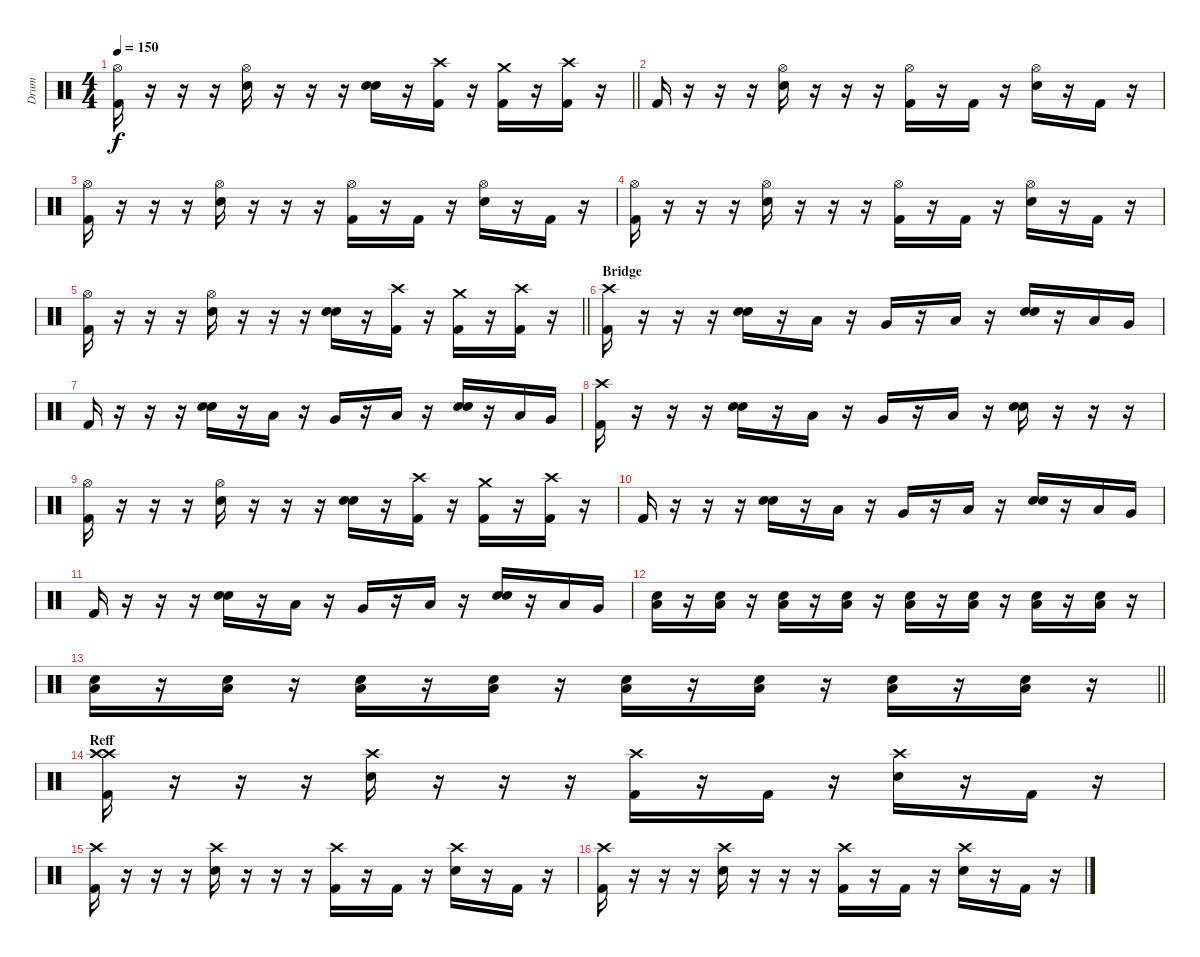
\track ("Drum" "Drum") {instrument percussion}
\staff {score}
\articulation defaults
\ts (4 4)
\tempo 150
\clef neutral
\barLineRight lightlight
\ks c
("Hi-Hat (open)" "Kick (hit) 2").16{dy f} r.16 r.16 r.16 ("Hi-Hat (open)" "Electric Snare (hit)").16 r.16 r.16 r.16 ("Electric Snare (hit)" "Electric Snare (hit)").16 r.16 ("Crash high (hit)" "Kick (hit) 2").16 r.16 ("Crash medium (hit)" "Kick (hit) 2").16 r.16 ("Crash high (hit)" "Kick (hit) 2").16 r.16 |
"Kick (hit) 2".16 r.16 r.16 r.16 ("Hi-Hat (open)" "Electric Snare (hit)").16 r.16 r.16 r.16 ("Hi-Hat (open)" "Kick (hit) 2").16 r.16 "Kick (hit) 2".16 r.16 ("Hi-Hat (open)" "Electric Snare (hit)").16 r.16 "Kick (hit) 2".16 r.16 |
("Hi-Hat (open)" "Kick (hit) 2").16 r.16 r.16 r.16 ("Hi-Hat (open)" "Electric Snare (hit)").16 r.16 r.16 r.16 ("Hi-Hat (open)" "Kick (hit) 2").16 r.16 "Kick (hit) 2".16 r.16 ("Hi-Hat (open)" "Electric Snare (hit)").16 r.16 "Kick (hit) 2".16 r.16 |
("Hi-Hat (open)" "Kick (hit) 2").16 r.16 r.16 r.16 ("Hi-Hat (open)" "Electric Snare (hit)").16 r.16 r.16 r.16 ("Hi-Hat (open)" "Kick (hit) 2").16 r.16 "Kick (hit) 2".16 r.16 ("Hi-Hat (open)" "Electric Snare (hit)").16 r.16 "Kick (hit) 2".16 r.16 |
\barLineRight lightlight
("Hi-Hat (open)" "Kick (hit) 2").16 r.16 r.16 r.16 ("Hi-Hat (open)" "Electric Snare (hit)").16 r.16 r.16 r.16 ("Electric Snare (hit)" "Electric Snare (hit)").16 r.16 ("Crash high (hit)" "Kick (hit) 2").16 r.16 ("Crash medium (hit)" "Kick (hit) 2").16 r.16 ("Crash high (hit)" "Kick (hit) 2").16 r.16 |
\section ("" "Bridge")
("Crash high (hit)" "Kick (hit) 2").16 r.16 r.16 r.16 ("Electric Snare (hit)" "Electric Snare (hit)").16 r.16 "Low Floor Tom (hit)".16 r.16 "Very Low Tom (hit)".16 r.16 "Low Floor Tom (hit)".16 r.16 ("Electric Snare (hit)" "Electric Snare (hit)").16 r.16 "Low Floor Tom (hit)".16 "Very Low Tom (hit)".16 |
"Kick (hit) 2".16 r.16 r.16 r.16 ("Electric Snare (hit)" "Electric Snare (hit)").16 r.16 "Low Floor Tom (hit)".16 r.16 "Very Low Tom (hit)".16 r.16 "Low Floor Tom (hit)".16 r.16 ("Electric Snare (hit)" "Electric Snare (hit)").16 r.16 "Low Floor Tom (hit)".16 "Very Low Tom (hit)".16 |
("Crash high (hit)" "Kick (hit) 2").16 r.16 r.16 r.16 ("Electric Snare (hit)" "Electric Snare (hit)").16 r.16 "Low Floor Tom (hit)".16 r.16 "Very Low Tom (hit)".16 r.16 "Low Floor Tom (hit)".16 r.16 ("Electric Snare (hit)" "Electric Snare (hit)").16 r.16 r.16 r.16 |
("Hi-Hat (open)" "Kick (hit) 2").16 r.16 r.16 r.16 ("Hi-Hat (open)" "Electric Snare (hit)").16 r.16 r.16 r.16 ("Electric Snare (hit)" "Electric Snare (hit)").16 r.16 ("Crash high (hit)" "Kick (hit) 2").16 r.16 ("Crash medium (hit)" "Kick (hit) 2").16 r.16 ("Crash high (hit)" "Kick (hit) 2").16 r.16 |
"Kick (hit) 2".16 r.16 r.16 r.16 ("Electric Snare (hit)" "Electric Snare (hit)").16 r.16 "Low Floor Tom (hit)".16 r.16 "Very Low Tom (hit)".16 r.16 "Low Floor Tom (hit)".16 r.16 ("Electric Snare (hit)" "Electric Snare (hit)").16 r.16 "Low Floor Tom (hit)".16 "Very Low Tom (hit)".16 |
"Kick (hit) 2".16 r.16 r.16 r.16 ("Electric Snare (hit)" "Electric Snare (hit)").16 r.16 "Low Floor Tom (hit)".16 r.16 "Very Low Tom (hit)".16 r.16 "Low Floor Tom (hit)".16 r.16 ("Electric Snare (hit)" "Electric Snare (hit)").16 r.16 "Low Floor Tom (hit)".16 "Very Low Tom (hit)".16 |
("Electric Snare (hit)" "Low Floor Tom (hit)").16 r.16 ("Electric Snare (hit)" "Low Floor Tom (hit)").16 r.16 ("Electric Snare (hit)" "Low Floor Tom (hit)").16 r.16 ("Electric Snare (hit)" "Low Floor Tom (hit)").16 r.16 ("Electric Snare (hit)" "Low Floor Tom (hit)").16 r.16 ("Electric Snare (hit)" "Low Floor Tom (hit)").16 r.16 ("Electric Snare (hit)" "Low Floor Tom (hit)").16 r.16 ("Electric Snare (hit)" "Low Floor Tom (hit)").16 r.16 |
\barLineRight lightlight
("Electric Snare (hit)" "Low Floor Tom (hit)").16 r.16 ("Electric Snare (hit)" "Low Floor Tom (hit)").16 r.16 ("Electric Snare (hit)" "Low Floor Tom (hit)").16 r.16 ("Electric Snare (hit)" "Low Floor Tom (hit)").16 r.16 ("Electric Snare (hit)" "Low Floor Tom (hit)").16 r.16 ("Electric Snare (hit)" "Low Floor Tom (hit)").16 r.16 ("Electric Snare (hit)" "Low Floor Tom (hit)").16 r.16 ("Electric Snare (hit)" "Low Floor Tom (hit)").16 r.16 |
\section ("" "Reff")
("Crash high (hit)" "Crash high (hit)" "Kick (hit) 2").16 r.16 r.16 r.16 ("Crash high (hit)" "Electric Snare (hit)").16 r.16 r.16 r.16 ("Crash high (hit)" "Kick (hit) 2").16 r.16 "Kick (hit) 2".16 r.16 ("Crash high (hit)" "Electric Snare (hit)").16 r.16 "Kick (hit) 2".16 r.16 |
("Crash high (hit)" "Kick (hit) 2").16 r.16 r.16 r.16 ("Crash high (hit)" "Electric Snare (hit)").16 r.16 r.16 r.16 ("Crash high (hit)" "Kick (hit) 2").16 r.16 "Kick (hit) 2".16 r.16 ("Crash high (hit)" "Electric Snare (hit)").16 r.16 "Kick (hit) 2".16 r.16 |
("Crash high (hit)" "Kick (hit) 2").16 r.16 r.16 r.16 ("Crash high (hit)" "Electric Snare (hit)").16 r.16 r.16 r.16 ("Crash high (hit)" "Kick (hit) 2").16 r.16 "Kick (hit) 2".16 r.16 ("Crash high (hit)" "Electric Snare (hit)").16 r.16 "Kick (hit) 2".16 r.16
